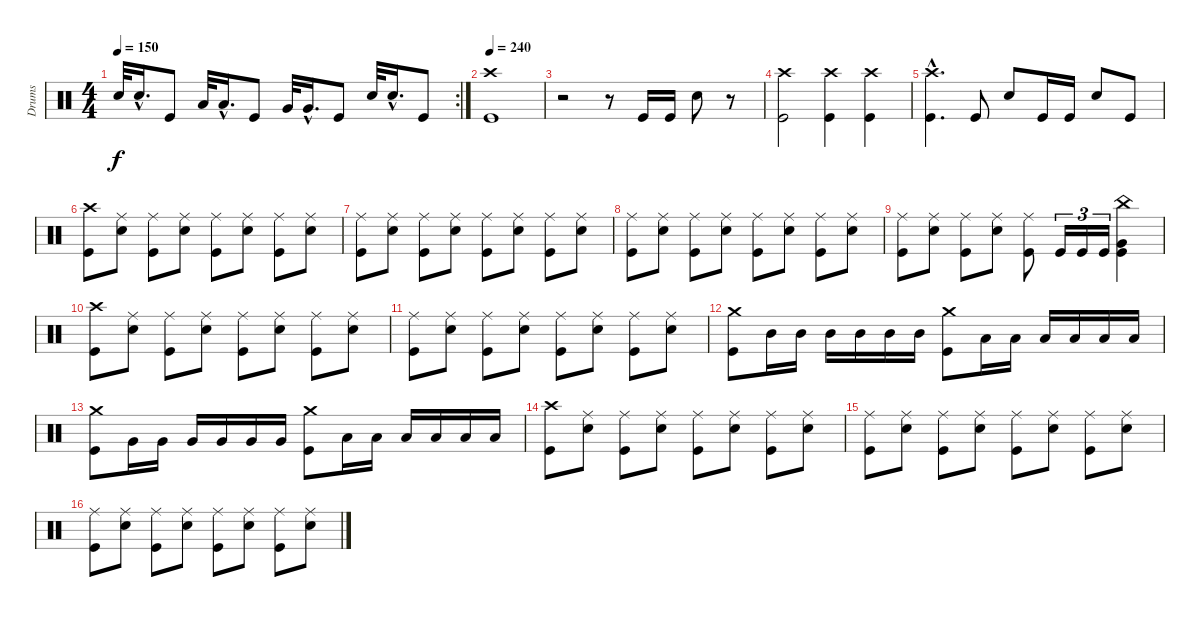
\track ("Drums" "Drums") {instrument percussion}
\staff {score}
\articulation defaults
\rc 2
\ts (4 4)
\tempo 150
\clef neutral
\ks c "Electric Snare (hit)".32{dy f} "Electric Snare (hit)"{hac}.16{d} "Kick (hit)".8 "Low Tom (hit)".32 "Low Tom (hit)"{hac}.16{d} "Kick (hit)".8 "Very Low Tom (hit)".32 "Very Low Tom (hit)"{hac}.16{d} "Kick (hit)".8 "Electric Snare (hit)".32 "Electric Snare (hit)"{hac}.16{d} "Kick (hit)".8
|
\tempo 240
("Crash high (hit)" "Kick (hit)").1 |
r.2 r.8 "Kick (hit)".16 "Kick (hit)".16 "Electric Snare (hit)".8 r.8 |
("Crash high (hit)" "Kick (hit)").2 ("Crash high (hit)" "Kick (hit)").4 ("Crash high (hit)" "Kick (hit)").4 |
("Crash high (hit)"{hac} "Kick (hit)"{hac}).4{d} "Kick (hit)".8 "Electric Snare (hit)".8 "Kick (hit)".16 "Kick (hit)".16 "Electric Snare (hit)".8 "Kick (hit)".8 |
("Crash high (hit)" "Kick (hit)").8 ("Ride (middle)" "Electric Snare (hit)").8 ("Ride (middle)" "Kick (hit)").8 ("Ride (middle)" "Electric Snare (hit)").8 ("Ride (middle)" "Kick (hit)").8 ("Ride (middle)" "Electric Snare (hit)").8 ("Ride (middle)" "Kick (hit)").8 ("Ride (middle)" "Electric Snare (hit)").8 |
("Ride (middle)" "Kick (hit)").8 ("Ride (middle)" "Electric Snare (hit)").8 ("Ride (middle)" "Kick (hit)").8 ("Ride (middle)" "Electric Snare (hit)").8 ("Ride (middle)" "Kick (hit)").8 ("Ride (middle)" "Electric Snare (hit)").8 ("Ride (middle)" "Kick (hit)").8 ("Ride (middle)" "Electric Snare (hit)").8 |
("Ride (middle)" "Kick (hit)").8 ("Ride (middle)" "Electric Snare (hit)").8 ("Ride (middle)" "Kick (hit)").8 ("Ride (middle)" "Electric Snare (hit)").8 ("Ride (middle)" "Kick (hit)").8 ("Ride (middle)" "Electric Snare (hit)").8 ("Ride (middle)" "Kick (hit)").8 ("Ride (middle)" "Electric Snare (hit)").8 |
("Ride (middle)" "Kick (hit)").8 ("Ride (middle)" "Electric Snare (hit)").8 ("Ride (middle)" "Kick (hit)").8 ("Ride (middle)" "Electric Snare (hit)").8 ("Ride (middle)" "Kick (hit)").8 "Kick (hit)".16{tu (3 2)} "Kick (hit)".16{tu (3 2)} "Kick (hit)".16{tu (3 2)} ("China (hit)" "Very Low Tom (hit)" "Kick (hit)").4 |
("Crash high (hit)" "Kick (hit)").8 ("Ride (middle)" "Electric Snare (hit)").8 ("Ride (middle)" "Kick (hit)").8 ("Ride (middle)" "Electric Snare (hit)").8 ("Ride (middle)" "Kick (hit)").8 ("Ride (middle)" "Electric Snare (hit)").8 ("Ride (middle)" "Kick (hit)").8 ("Ride (middle)" "Electric Snare (hit)").8 |
("Ride (middle)" "Kick (hit)").8 ("Ride (middle)" "Electric Snare (hit)").8 ("Ride (middle)" "Kick (hit)").8 ("Ride (middle)" "Electric Snare (hit)").8 ("Ride (middle)" "Kick (hit)").8 ("Ride (middle)" "Electric Snare (hit)").8 ("Ride (middle)" "Kick (hit)").8 ("Ride (middle)" "Electric Snare (hit)").8 |
("Crash medium (hit)" "Kick (hit)").8 "Mid Tom (hit)".16 "Mid Tom (hit)".16 "Mid Tom (hit)".16 "Mid Tom (hit)".16 "Mid Tom (hit)".16 "Mid Tom (hit)".16 ("Crash medium (hit)" "Kick (hit)").8 "Low Tom (hit)".16 "Low Tom (hit)".16 "Low Tom (hit)".16 "Low Tom (hit)".16 "Low Tom (hit)".16 "Low Tom (hit)".16 |
("Crash medium (hit)" "Kick (hit)").8 "Very Low Tom (hit)".16 "Very Low Tom (hit)".16 "Very Low Tom (hit)".16 "Very Low Tom (hit)".16 "Very Low Tom (hit)".16 "Very Low Tom (hit)".16 ("Crash medium (hit)" "Kick (hit)").8 "Low Floor Tom (hit)".16 "Low Floor Tom (hit)".16 "Low Floor Tom (hit)".16 "Low Floor Tom (hit)".16 "Low Floor Tom (hit)".16 "Low Floor Tom (hit)".16 |
("Crash high (hit)" "Kick (hit)").8 ("Ride (middle)" "Electric Snare (hit)").8 ("Ride (middle)" "Kick (hit)").8 ("Ride (middle)" "Electric Snare (hit)").8 ("Ride (middle)" "Kick (hit)").8 ("Ride (middle)" "Electric Snare (hit)").8 ("Ride (middle)" "Kick (hit)").8 ("Ride (middle)" "Electric Snare (hit)").8 |
("Ride (middle)" "Kick (hit)").8 ("Ride (middle)" "Electric Snare (hit)").8 ("Ride (middle)" "Kick (hit)").8 ("Ride (middle)" "Electric Snare (hit)").8 ("Ride (middle)" "Kick (hit)").8 ("Ride (middle)" "Electric Snare (hit)").8 ("Ride (middle)" "Kick (hit)").8 ("Ride (middle)" "Electric Snare (hit)").8 |
("Ride (middle)" "Kick (hit)").8 ("Ride (middle)" "Electric Snare (hit)").8 ("Ride (middle)" "Kick (hit)").8 ("Ride (middle)" "Electric Snare (hit)").8 ("Ride (middle)" "Kick (hit)").8 ("Ride (middle)" "Electric Snare (hit)").8 ("Ride (middle)" "Kick (hit)").8 ("Ride (middle)" "Electric Snare (hit)").8
